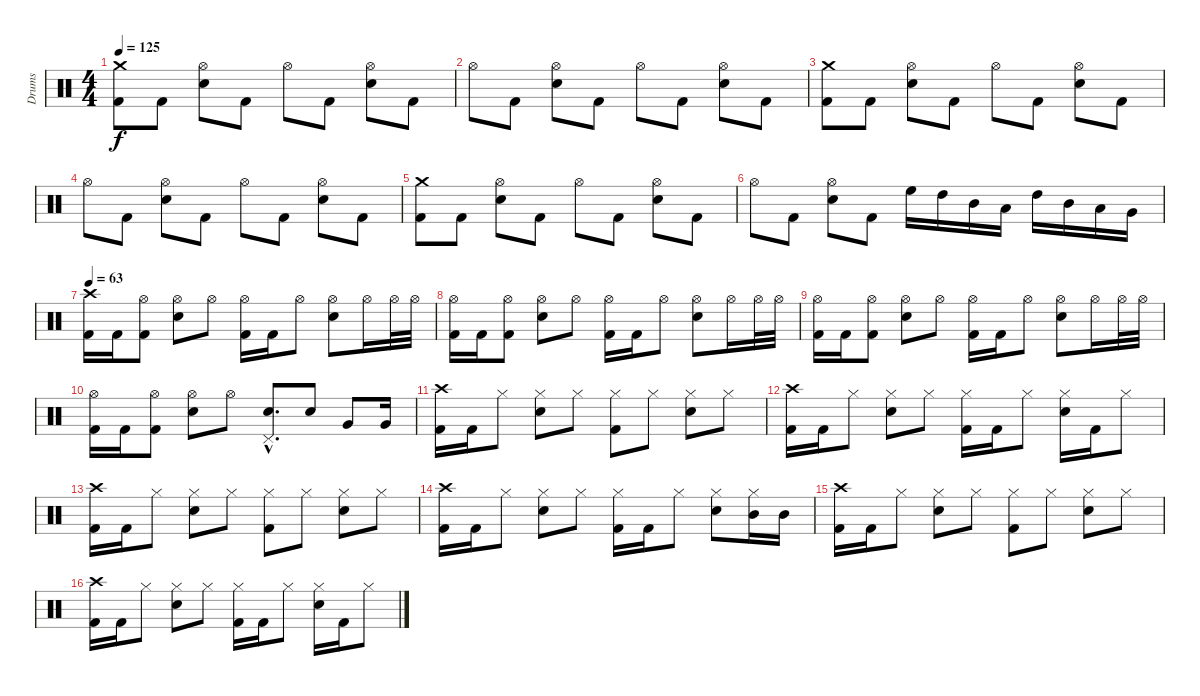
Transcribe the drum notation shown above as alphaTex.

\track ("Drums" "Drums") {instrument percussion}
\staff {score}
\articulation defaults
\ts (4 4)
\tempo 125
\clef neutral
\ks c
("Crash medium (hit)" "Kick (hit) 2").8{dy f} "Kick (hit) 2".8 ("Hi-Hat (open)" "Electric Snare (hit)").8 "Kick (hit) 2".8 "Hi-Hat (open)".8 "Kick (hit) 2".8 ("Hi-Hat (open)" "Electric Snare (hit)").8 "Kick (hit) 2".8 |
"Hi-Hat (open)".8 "Kick (hit) 2".8 ("Hi-Hat (open)" "Electric Snare (hit)").8 "Kick (hit) 2".8 "Hi-Hat (open)".8 "Kick (hit) 2".8 ("Hi-Hat (open)" "Electric Snare (hit)").8 "Kick (hit) 2".8 |
("Crash medium (hit)" "Kick (hit) 2").8 "Kick (hit) 2".8 ("Hi-Hat (open)" "Electric Snare (hit)").8 "Kick (hit) 2".8 "Hi-Hat (open)".8 "Kick (hit) 2".8 ("Hi-Hat (open)" "Electric Snare (hit)").8 "Kick (hit) 2".8 |
"Hi-Hat (open)".8 "Kick (hit) 2".8 ("Hi-Hat (open)" "Electric Snare (hit)").8 "Kick (hit) 2".8 "Hi-Hat (open)".8 "Kick (hit) 2".8 ("Hi-Hat (open)" "Electric Snare (hit)").8 "Kick (hit) 2".8 |
("Crash medium (hit)" "Kick (hit) 2").8 "Kick (hit) 2".8 ("Hi-Hat (open)" "Electric Snare (hit)").8 "Kick (hit) 2".8 "Hi-Hat (open)".8 "Kick (hit) 2".8 ("Hi-Hat (open)" "Electric Snare (hit)").8 "Kick (hit) 2".8 |
"Hi-Hat (open)".8 "Kick (hit) 2".8 ("Hi-Hat (open)" "Electric Snare (hit)").8 "Kick (hit) 2".8 "High Floor Tom (hit)".16 "High Tom (hit)".16 "Mid Tom (hit)".16 "Low Tom (hit)".16 "High Tom (hit)".16 "Mid Tom (hit)".16 "Low Tom (hit)".16 "Very Low Tom (hit)".16 |
\tempo 63
("Crash high (hit)" "Kick (hit) 2").16 "Kick (hit) 2".16 ("Hi-Hat (open)" "Kick (hit) 2").8 ("Hi-Hat (open)" "Electric Snare (hit)").8 "Hi-Hat (open)".8 ("Hi-Hat (open)" "Kick (hit) 2").16 "Kick (hit) 2".16 "Hi-Hat (open)".8 ("Hi-Hat (open)" "Electric Snare (hit)").8 "Hi-Hat (open)".16 "Hi-Hat (open)".32 "Hi-Hat (open)".32 |
("Hi-Hat (open)" "Kick (hit) 2").16 "Kick (hit) 2".16 ("Hi-Hat (open)" "Kick (hit) 2").8 ("Hi-Hat (open)" "Electric Snare (hit)").8 "Hi-Hat (open)".8 ("Hi-Hat (open)" "Kick (hit) 2").16 "Kick (hit) 2".16 "Hi-Hat (open)".8 ("Hi-Hat (open)" "Electric Snare (hit)").8 "Hi-Hat (open)".16 "Hi-Hat (open)".32 "Hi-Hat (open)".32 |
("Hi-Hat (open)" "Kick (hit) 2").16 "Kick (hit) 2".16 ("Hi-Hat (open)" "Kick (hit) 2").8 ("Hi-Hat (open)" "Electric Snare (hit)").8 "Hi-Hat (open)".8 ("Hi-Hat (open)" "Kick (hit) 2").16 "Kick (hit) 2".16 "Hi-Hat (open)".8 ("Hi-Hat (open)" "Electric Snare (hit)").8 "Hi-Hat (open)".16 "Hi-Hat (open)".32 "Hi-Hat (open)".32 |
("Hi-Hat (open)" "Kick (hit) 2").16 "Kick (hit) 2".16 ("Hi-Hat (open)" "Kick (hit) 2").8 ("Hi-Hat (open)" "Electric Snare (hit)").8 "Hi-Hat (open)".8 ("Pedal Hi-Hat (hit)"{hac} "Electric Snare (hit)"{hac}).8{d} "Electric Snare (hit)".8 "Very Low Tom (hit)".8 "Very Low Tom (hit)".16 |
("Crash high (hit)" "Kick (hit) 2").16 "Kick (hit) 2".16 "Hi-Hat (closed)".8 ("Hi-Hat (closed)" "Electric Snare (hit)").8 "Hi-Hat (closed)".8 ("Hi-Hat (closed)" "Kick (hit) 2").8 "Hi-Hat (closed)".8 ("Hi-Hat (closed)" "Electric Snare (hit)").8 "Hi-Hat (closed)".8 |
("Crash high (hit)" "Kick (hit) 2").16 "Kick (hit) 2".16 "Hi-Hat (closed)".8 ("Hi-Hat (closed)" "Electric Snare (hit)").8 "Hi-Hat (closed)".8 ("Hi-Hat (closed)" "Kick (hit) 2").16 "Kick (hit) 2".16 "Hi-Hat (closed)".8 ("Hi-Hat (closed)" "Electric Snare (hit)").16 "Kick (hit) 2".16 "Hi-Hat (closed)".8 |
("Crash high (hit)" "Kick (hit) 2").16 "Kick (hit) 2".16 "Hi-Hat (closed)".8 ("Hi-Hat (closed)" "Electric Snare (hit)").8 "Hi-Hat (closed)".8 ("Hi-Hat (closed)" "Kick (hit) 2").8 "Hi-Hat (closed)".8 ("Hi-Hat (closed)" "Electric Snare (hit)").8 "Hi-Hat (closed)".8 |
("Crash high (hit)" "Kick (hit) 2").16 "Kick (hit) 2".16 "Hi-Hat (closed)".8 ("Hi-Hat (closed)" "Electric Snare (hit)").8 "Hi-Hat (closed)".8 ("Hi-Hat (closed)" "Kick (hit) 2").16 "Kick (hit) 2".16 "Hi-Hat (closed)".8 ("Hi-Hat (closed)" "Electric Snare (hit)").8 ("Hi-Hat (closed)" "Mid Tom (hit)").16 "Mid Tom (hit)".16 |
("Crash high (hit)" "Kick (hit) 2").16 "Kick (hit) 2".16 "Hi-Hat (closed)".8 ("Hi-Hat (closed)" "Electric Snare (hit)").8 "Hi-Hat (closed)".8 ("Hi-Hat (closed)" "Kick (hit) 2").8 "Hi-Hat (closed)".8 ("Hi-Hat (closed)" "Electric Snare (hit)").8 "Hi-Hat (closed)".8 |
("Crash high (hit)" "Kick (hit) 2").16 "Kick (hit) 2".16 "Hi-Hat (closed)".8 ("Hi-Hat (closed)" "Electric Snare (hit)").8 "Hi-Hat (closed)".8 ("Hi-Hat (closed)" "Kick (hit) 2").16 "Kick (hit) 2".16 "Hi-Hat (closed)".8 ("Hi-Hat (closed)" "Electric Snare (hit)").16 "Kick (hit) 2".16 "Hi-Hat (closed)".8
